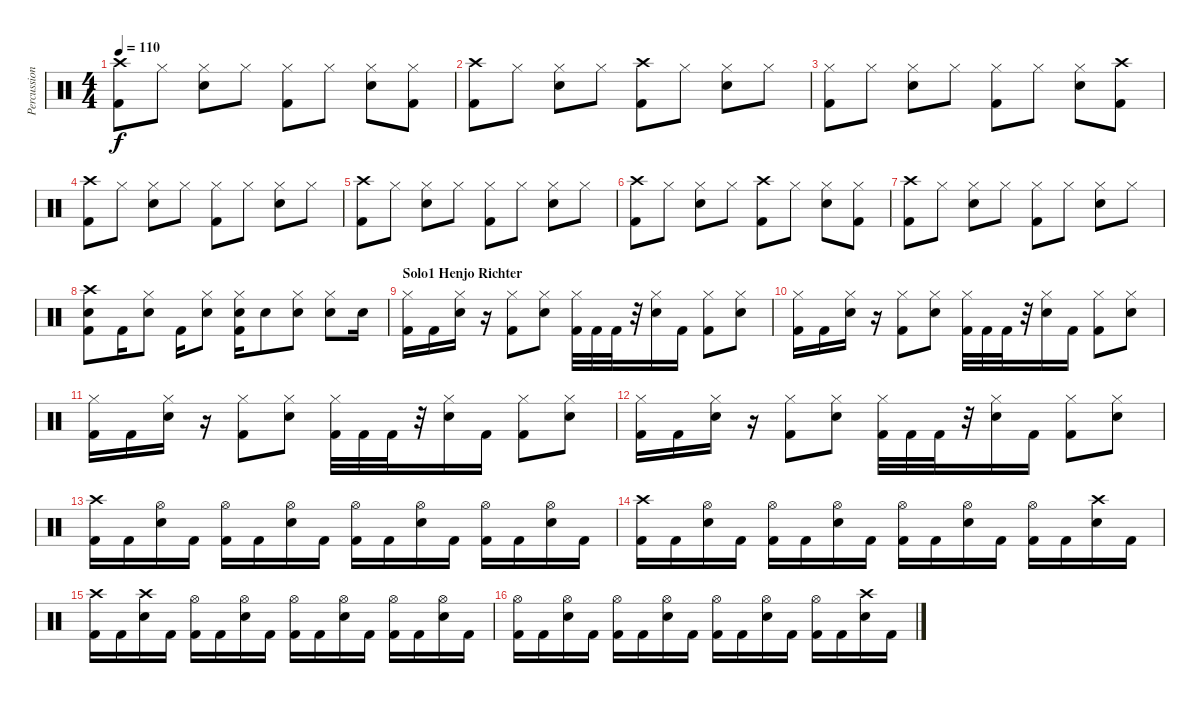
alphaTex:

\track ("Percussions" "Percussion") {instrument percussion}
\staff {score}
\articulation defaults
\ts (4 4)
\tempo 110
\clef neutral
\ks c
("Crash high (hit)" "Kick (hit) 2").8{dy f} "Hi-Hat (closed)".8 ("Hi-Hat (closed)" "Electric Snare (hit)").8 "Hi-Hat (closed)".8 ("Hi-Hat (closed)" "Kick (hit) 2").8 "Hi-Hat (closed)".8 ("Hi-Hat (closed)" "Electric Snare (hit)").8 ("Hi-Hat (closed)" "Kick (hit) 2").8 |
("Crash high (hit)" "Kick (hit) 2").8 "Hi-Hat (closed)".8 ("Hi-Hat (closed)" "Electric Snare (hit)").8 "Hi-Hat (closed)".8 ("Crash high (hit)" "Kick (hit) 2").8 "Hi-Hat (closed)".8 ("Hi-Hat (closed)" "Electric Snare (hit)").8 "Hi-Hat (closed)".8 |
("Hi-Hat (closed)" "Kick (hit) 2").8 "Hi-Hat (closed)".8 ("Hi-Hat (closed)" "Electric Snare (hit)").8 "Hi-Hat (closed)".8 ("Hi-Hat (closed)" "Kick (hit) 2").8 "Hi-Hat (closed)".8 ("Hi-Hat (closed)" "Electric Snare (hit)").8 ("Crash high (hit)" "Kick (hit) 2").8 |
("Crash high (hit)" "Kick (hit) 2").8 "Hi-Hat (closed)".8 ("Hi-Hat (closed)" "Electric Snare (hit)").8 "Hi-Hat (closed)".8 ("Hi-Hat (closed)" "Kick (hit) 2").8 "Hi-Hat (closed)".8 ("Hi-Hat (closed)" "Electric Snare (hit)").8 "Hi-Hat (closed)".8 |
("Crash high (hit)" "Kick (hit) 2").8 "Hi-Hat (closed)".8 ("Hi-Hat (closed)" "Electric Snare (hit)").8 "Hi-Hat (closed)".8 ("Hi-Hat (closed)" "Kick (hit) 2").8 "Hi-Hat (closed)".8 ("Hi-Hat (closed)" "Electric Snare (hit)").8 "Hi-Hat (closed)".8 |
("Crash high (hit)" "Kick (hit) 2").8 "Hi-Hat (closed)".8 ("Hi-Hat (closed)" "Electric Snare (hit)").8 "Hi-Hat (closed)".8 ("Crash high (hit)" "Kick (hit) 2").8 "Hi-Hat (closed)".8 ("Hi-Hat (closed)" "Electric Snare (hit)").8 ("Hi-Hat (closed)" "Kick (hit) 2").8 |
("Crash high (hit)" "Kick (hit) 2").8 "Hi-Hat (closed)".8 ("Hi-Hat (closed)" "Electric Snare (hit)").8 "Hi-Hat (closed)".8 ("Hi-Hat (closed)" "Kick (hit) 2").8 "Hi-Hat (closed)".8 ("Hi-Hat (closed)" "Electric Snare (hit)").8 "Hi-Hat (closed)".8 |
("Crash high (hit)" "Electric Snare (hit)" "Kick (hit) 2").8 "Kick (hit) 2".16 ("Hi-Hat (closed)" "Electric Snare (hit)").8 "Kick (hit) 2".16 ("Hi-Hat (closed)" "Electric Snare (hit)").8 ("Hi-Hat (closed)" "Electric Snare (hit)" "Kick (hit) 2").16 "Electric Snare (hit)".8 ("Hi-Hat (closed)" "Electric Snare (hit)").8 ("Hi-Hat (closed)" "Electric Snare (hit)").8 "Electric Snare (hit)".16 |
\section ("" "Solo1 Henjo Richter")
("Hi-Hat (closed)" "Kick (hit) 2").16 "Kick (hit) 2".16 ("Hi-Hat (closed)" "Electric Snare (hit)").16 r.16 ("Hi-Hat (closed)" "Kick (hit) 2").8 ("Hi-Hat (closed)" "Electric Snare (hit)").8 ("Hi-Hat (closed)" "Kick (hit) 2").32 "Kick (hit) 2".32 "Kick (hit) 2".32 r.32 ("Hi-Hat (closed)" "Electric Snare (hit)").16 "Kick (hit) 2".16 ("Hi-Hat (closed)" "Kick (hit) 2").8 ("Hi-Hat (closed)" "Electric Snare (hit)").8 |
("Hi-Hat (closed)" "Kick (hit) 2").16 "Kick (hit) 2".16 ("Hi-Hat (closed)" "Electric Snare (hit)").16 r.16 ("Hi-Hat (closed)" "Kick (hit) 2").8 ("Hi-Hat (closed)" "Electric Snare (hit)").8 ("Hi-Hat (closed)" "Kick (hit) 2").32 "Kick (hit) 2".32 "Kick (hit) 2".32 r.32 ("Hi-Hat (closed)" "Electric Snare (hit)").16 "Kick (hit) 2".16 ("Hi-Hat (closed)" "Kick (hit) 2").8 ("Hi-Hat (closed)" "Electric Snare (hit)").8 |
("Hi-Hat (closed)" "Kick (hit) 2").16 "Kick (hit) 2".16 ("Hi-Hat (closed)" "Electric Snare (hit)").16 r.16 ("Hi-Hat (closed)" "Kick (hit) 2").8 ("Hi-Hat (closed)" "Electric Snare (hit)").8 ("Hi-Hat (closed)" "Kick (hit) 2").32 "Kick (hit) 2".32 "Kick (hit) 2".32 r.32 ("Hi-Hat (closed)" "Electric Snare (hit)").16 "Kick (hit) 2".16 ("Hi-Hat (closed)" "Kick (hit) 2").8 ("Hi-Hat (closed)" "Electric Snare (hit)").8 |
("Hi-Hat (closed)" "Kick (hit) 2").16 "Kick (hit) 2".16 ("Hi-Hat (closed)" "Electric Snare (hit)").16 r.16 ("Hi-Hat (closed)" "Kick (hit) 2").8 ("Hi-Hat (closed)" "Electric Snare (hit)").8 ("Hi-Hat (closed)" "Kick (hit) 2").32 "Kick (hit) 2".32 "Kick (hit) 2".32 r.32 ("Hi-Hat (closed)" "Electric Snare (hit)").16 "Kick (hit) 2".16 ("Hi-Hat (closed)" "Kick (hit) 2").8 ("Hi-Hat (closed)" "Electric Snare (hit)").8 |
("Crash high (hit)" "Kick (hit) 2").16 "Kick (hit) 2".16 ("Hi-Hat (open)" "Electric Snare (hit)").16 "Kick (hit) 2".16 ("Hi-Hat (open)" "Kick (hit) 2").16 "Kick (hit) 2".16 ("Hi-Hat (open)" "Electric Snare (hit)").16 "Kick (hit) 2".16 ("Hi-Hat (open)" "Kick (hit) 2").16 "Kick (hit) 2".16 ("Hi-Hat (open)" "Electric Snare (hit)").16 "Kick (hit) 2".16 ("Hi-Hat (open)" "Kick (hit) 2").16 "Kick (hit) 2".16 ("Hi-Hat (open)" "Electric Snare (hit)").16 "Kick (hit) 2".16 |
("Crash high (hit)" "Kick (hit) 2").16 "Kick (hit) 2".16 ("Hi-Hat (open)" "Electric Snare (hit)").16 "Kick (hit) 2".16 ("Hi-Hat (open)" "Kick (hit) 2").16 "Kick (hit) 2".16 ("Hi-Hat (open)" "Electric Snare (hit)").16 "Kick (hit) 2".16 ("Hi-Hat (open)" "Kick (hit) 2").16 "Kick (hit) 2".16 ("Hi-Hat (open)" "Electric Snare (hit)").16 "Kick (hit) 2".16 ("Hi-Hat (open)" "Kick (hit) 2").16 "Kick (hit) 2".16 ("Crash high (hit)" "Electric Snare (hit)").16 "Kick (hit) 2".16 |
("Crash high (hit)" "Kick (hit) 2").16 "Kick (hit) 2".16 ("Crash high (hit)" "Electric Snare (hit)").16 "Kick (hit) 2".16 ("Hi-Hat (open)" "Kick (hit) 2").16 "Kick (hit) 2".16 ("Hi-Hat (open)" "Electric Snare (hit)").16 "Kick (hit) 2".16 ("Hi-Hat (open)" "Kick (hit) 2").16 "Kick (hit) 2".16 ("Hi-Hat (open)" "Electric Snare (hit)").16 "Kick (hit) 2".16 ("Hi-Hat (open)" "Kick (hit) 2").16 "Kick (hit) 2".16 ("Hi-Hat (open)" "Electric Snare (hit)").16 "Kick (hit) 2".16 |
("Hi-Hat (open)" "Kick (hit) 2").16 "Kick (hit) 2".16 ("Hi-Hat (open)" "Electric Snare (hit)").16 "Kick (hit) 2".16 ("Hi-Hat (open)" "Kick (hit) 2").16 "Kick (hit) 2".16 ("Hi-Hat (open)" "Electric Snare (hit)").16 "Kick (hit) 2".16 ("Hi-Hat (open)" "Kick (hit) 2").16 "Kick (hit) 2".16 ("Hi-Hat (open)" "Electric Snare (hit)").16 "Kick (hit) 2".16 ("Hi-Hat (open)" "Kick (hit) 2").16 "Kick (hit) 2".16 ("Crash high (hit)" "Electric Snare (hit)").16 "Kick (hit) 2".16
